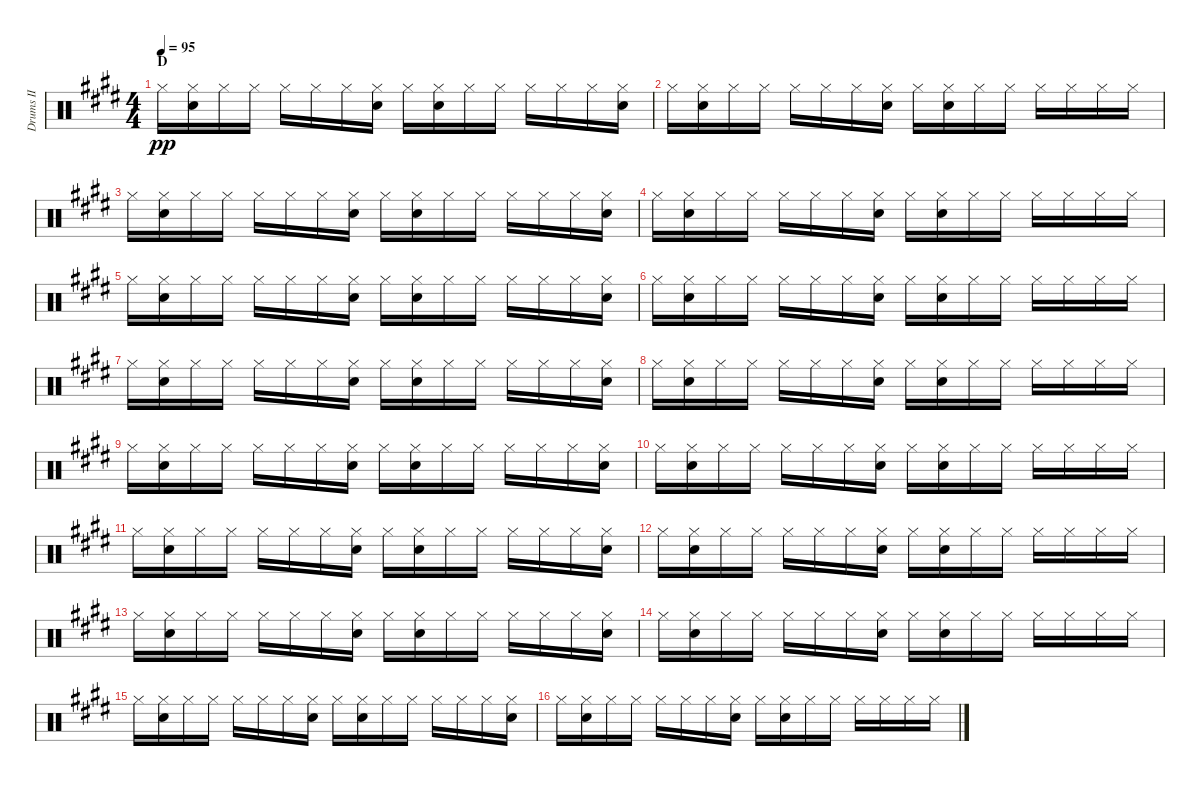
\track ("Drums II" "Drums II") {instrument percussion}
\staff {score}
\articulation defaults
\ts (4 4)
\section ("" "D")
\tempo 95
\clef neutral
\ks e "Hi-Hat (closed)".16{dy pp}
("Hi-Hat (closed)" "Snare (hit) 2").16 "Hi-Hat (closed)".16 "Hi-Hat (closed)".16 "Hi-Hat (closed)".16 "Hi-Hat (closed)".16 "Hi-Hat (closed)".16 ("Hi-Hat (closed)" "Snare (hit) 2").16 "Hi-Hat (closed)".16 ("Hi-Hat (closed)" "Snare (hit) 2").16 "Hi-Hat (closed)".16 "Hi-Hat (closed)".16 "Hi-Hat (closed)".16 "Hi-Hat (closed)".16 "Hi-Hat (closed)".16 ("Hi-Hat (closed)" "Snare (hit) 2").16 |
"Hi-Hat (closed)".16 ("Hi-Hat (closed)" "Snare (hit) 2").16 "Hi-Hat (closed)".16 "Hi-Hat (closed)".16 "Hi-Hat (closed)".16 "Hi-Hat (closed)".16 "Hi-Hat (closed)".16 ("Hi-Hat (closed)" "Snare (hit) 2").16 "Hi-Hat (closed)".16 ("Hi-Hat (closed)" "Snare (hit) 2").16 "Hi-Hat (closed)".16 "Hi-Hat (closed)".16 "Hi-Hat (closed)".16 "Hi-Hat (closed)".16 "Hi-Hat (closed)".16 "Hi-Hat (closed)".16 |
"Hi-Hat (closed)".16 ("Hi-Hat (closed)" "Snare (hit) 2").16 "Hi-Hat (closed)".16 "Hi-Hat (closed)".16 "Hi-Hat (closed)".16 "Hi-Hat (closed)".16 "Hi-Hat (closed)".16 ("Hi-Hat (closed)" "Snare (hit) 2").16 "Hi-Hat (closed)".16 ("Hi-Hat (closed)" "Snare (hit) 2").16 "Hi-Hat (closed)".16 "Hi-Hat (closed)".16 "Hi-Hat (closed)".16 "Hi-Hat (closed)".16 "Hi-Hat (closed)".16 ("Hi-Hat (closed)" "Snare (hit) 2").16 |
"Hi-Hat (closed)".16 ("Hi-Hat (closed)" "Snare (hit) 2").16 "Hi-Hat (closed)".16 "Hi-Hat (closed)".16 "Hi-Hat (closed)".16 "Hi-Hat (closed)".16 "Hi-Hat (closed)".16 ("Hi-Hat (closed)" "Snare (hit) 2").16 "Hi-Hat (closed)".16 ("Hi-Hat (closed)" "Snare (hit) 2").16 "Hi-Hat (closed)".16 "Hi-Hat (closed)".16 "Hi-Hat (closed)".16 "Hi-Hat (closed)".16 "Hi-Hat (closed)".16 "Hi-Hat (closed)".16 |
"Hi-Hat (closed)".16 ("Hi-Hat (closed)" "Snare (hit) 2").16 "Hi-Hat (closed)".16 "Hi-Hat (closed)".16 "Hi-Hat (closed)".16 "Hi-Hat (closed)".16 "Hi-Hat (closed)".16 ("Hi-Hat (closed)" "Snare (hit) 2").16 "Hi-Hat (closed)".16 ("Hi-Hat (closed)" "Snare (hit) 2").16 "Hi-Hat (closed)".16 "Hi-Hat (closed)".16 "Hi-Hat (closed)".16 "Hi-Hat (closed)".16 "Hi-Hat (closed)".16 ("Hi-Hat (closed)" "Snare (hit) 2").16 |
"Hi-Hat (closed)".16 ("Hi-Hat (closed)" "Snare (hit) 2").16 "Hi-Hat (closed)".16 "Hi-Hat (closed)".16 "Hi-Hat (closed)".16 "Hi-Hat (closed)".16 "Hi-Hat (closed)".16 ("Hi-Hat (closed)" "Snare (hit) 2").16 "Hi-Hat (closed)".16 ("Hi-Hat (closed)" "Snare (hit) 2").16 "Hi-Hat (closed)".16 "Hi-Hat (closed)".16 "Hi-Hat (closed)".16 "Hi-Hat (closed)".16 "Hi-Hat (closed)".16 "Hi-Hat (closed)".16 |
"Hi-Hat (closed)".16 ("Hi-Hat (closed)" "Snare (hit) 2").16 "Hi-Hat (closed)".16 "Hi-Hat (closed)".16 "Hi-Hat (closed)".16 "Hi-Hat (closed)".16 "Hi-Hat (closed)".16 ("Hi-Hat (closed)" "Snare (hit) 2").16 "Hi-Hat (closed)".16 ("Hi-Hat (closed)" "Snare (hit) 2").16 "Hi-Hat (closed)".16 "Hi-Hat (closed)".16 "Hi-Hat (closed)".16 "Hi-Hat (closed)".16 "Hi-Hat (closed)".16 ("Hi-Hat (closed)" "Snare (hit) 2").16 |
"Hi-Hat (closed)".16 ("Hi-Hat (closed)" "Snare (hit) 2").16 "Hi-Hat (closed)".16 "Hi-Hat (closed)".16 "Hi-Hat (closed)".16 "Hi-Hat (closed)".16 "Hi-Hat (closed)".16 ("Hi-Hat (closed)" "Snare (hit) 2").16 "Hi-Hat (closed)".16 ("Hi-Hat (closed)" "Snare (hit) 2").16 "Hi-Hat (closed)".16 "Hi-Hat (closed)".16 "Hi-Hat (closed)".16 "Hi-Hat (closed)".16 "Hi-Hat (closed)".16 "Hi-Hat (closed)".16 |
"Hi-Hat (closed)".16 ("Hi-Hat (closed)" "Snare (hit) 2").16 "Hi-Hat (closed)".16 "Hi-Hat (closed)".16 "Hi-Hat (closed)".16 "Hi-Hat (closed)".16 "Hi-Hat (closed)".16 ("Hi-Hat (closed)" "Snare (hit) 2").16 "Hi-Hat (closed)".16 ("Hi-Hat (closed)" "Snare (hit) 2").16 "Hi-Hat (closed)".16 "Hi-Hat (closed)".16 "Hi-Hat (closed)".16 "Hi-Hat (closed)".16 "Hi-Hat (closed)".16 ("Hi-Hat (closed)" "Snare (hit) 2").16 |
"Hi-Hat (closed)".16 ("Hi-Hat (closed)" "Snare (hit) 2").16 "Hi-Hat (closed)".16 "Hi-Hat (closed)".16 "Hi-Hat (closed)".16 "Hi-Hat (closed)".16 "Hi-Hat (closed)".16 ("Hi-Hat (closed)" "Snare (hit) 2").16 "Hi-Hat (closed)".16 ("Hi-Hat (closed)" "Snare (hit) 2").16 "Hi-Hat (closed)".16 "Hi-Hat (closed)".16 "Hi-Hat (closed)".16 "Hi-Hat (closed)".16 "Hi-Hat (closed)".16 "Hi-Hat (closed)".16 |
"Hi-Hat (closed)".16 ("Hi-Hat (closed)" "Snare (hit) 2").16 "Hi-Hat (closed)".16 "Hi-Hat (closed)".16 "Hi-Hat (closed)".16 "Hi-Hat (closed)".16 "Hi-Hat (closed)".16 ("Hi-Hat (closed)" "Snare (hit) 2").16 "Hi-Hat (closed)".16 ("Hi-Hat (closed)" "Snare (hit) 2").16 "Hi-Hat (closed)".16 "Hi-Hat (closed)".16 "Hi-Hat (closed)".16 "Hi-Hat (closed)".16 "Hi-Hat (closed)".16 ("Hi-Hat (closed)" "Snare (hit) 2").16 |
"Hi-Hat (closed)".16 ("Hi-Hat (closed)" "Snare (hit) 2").16 "Hi-Hat (closed)".16 "Hi-Hat (closed)".16 "Hi-Hat (closed)".16 "Hi-Hat (closed)".16 "Hi-Hat (closed)".16 ("Hi-Hat (closed)" "Snare (hit) 2").16 "Hi-Hat (closed)".16 ("Hi-Hat (closed)" "Snare (hit) 2").16 "Hi-Hat (closed)".16 "Hi-Hat (closed)".16 "Hi-Hat (closed)".16 "Hi-Hat (closed)".16 "Hi-Hat (closed)".16 "Hi-Hat (closed)".16 |
"Hi-Hat (closed)".16 ("Hi-Hat (closed)" "Snare (hit) 2").16 "Hi-Hat (closed)".16 "Hi-Hat (closed)".16 "Hi-Hat (closed)".16 "Hi-Hat (closed)".16 "Hi-Hat (closed)".16 ("Hi-Hat (closed)" "Snare (hit) 2").16 "Hi-Hat (closed)".16 ("Hi-Hat (closed)" "Snare (hit) 2").16 "Hi-Hat (closed)".16 "Hi-Hat (closed)".16 "Hi-Hat (closed)".16 "Hi-Hat (closed)".16 "Hi-Hat (closed)".16 ("Hi-Hat (closed)" "Snare (hit) 2").16 |
"Hi-Hat (closed)".16 ("Hi-Hat (closed)" "Snare (hit) 2").16 "Hi-Hat (closed)".16 "Hi-Hat (closed)".16 "Hi-Hat (closed)".16 "Hi-Hat (closed)".16 "Hi-Hat (closed)".16 ("Hi-Hat (closed)" "Snare (hit) 2").16 "Hi-Hat (closed)".16 ("Hi-Hat (closed)" "Snare (hit) 2").16 "Hi-Hat (closed)".16 "Hi-Hat (closed)".16 "Hi-Hat (closed)".16 "Hi-Hat (closed)".16 "Hi-Hat (closed)".16 "Hi-Hat (closed)".16 |
"Hi-Hat (closed)".16 ("Hi-Hat (closed)" "Snare (hit) 2").16 "Hi-Hat (closed)".16 "Hi-Hat (closed)".16 "Hi-Hat (closed)".16 "Hi-Hat (closed)".16 "Hi-Hat (closed)".16 ("Hi-Hat (closed)" "Snare (hit) 2").16 "Hi-Hat (closed)".16 ("Hi-Hat (closed)" "Snare (hit) 2").16 "Hi-Hat (closed)".16 "Hi-Hat (closed)".16 "Hi-Hat (closed)".16 "Hi-Hat (closed)".16 "Hi-Hat (closed)".16 ("Hi-Hat (closed)" "Snare (hit) 2").16 |
"Hi-Hat (closed)".16 ("Hi-Hat (closed)" "Snare (hit) 2").16 "Hi-Hat (closed)".16 "Hi-Hat (closed)".16 "Hi-Hat (closed)".16 "Hi-Hat (closed)".16 "Hi-Hat (closed)".16 ("Hi-Hat (closed)" "Snare (hit) 2").16 "Hi-Hat (closed)".16 ("Hi-Hat (closed)" "Snare (hit) 2").16 "Hi-Hat (closed)".16 "Hi-Hat (closed)".16 "Hi-Hat (closed)".16 "Hi-Hat (closed)".16 "Hi-Hat (closed)".16 "Hi-Hat (closed)".16
